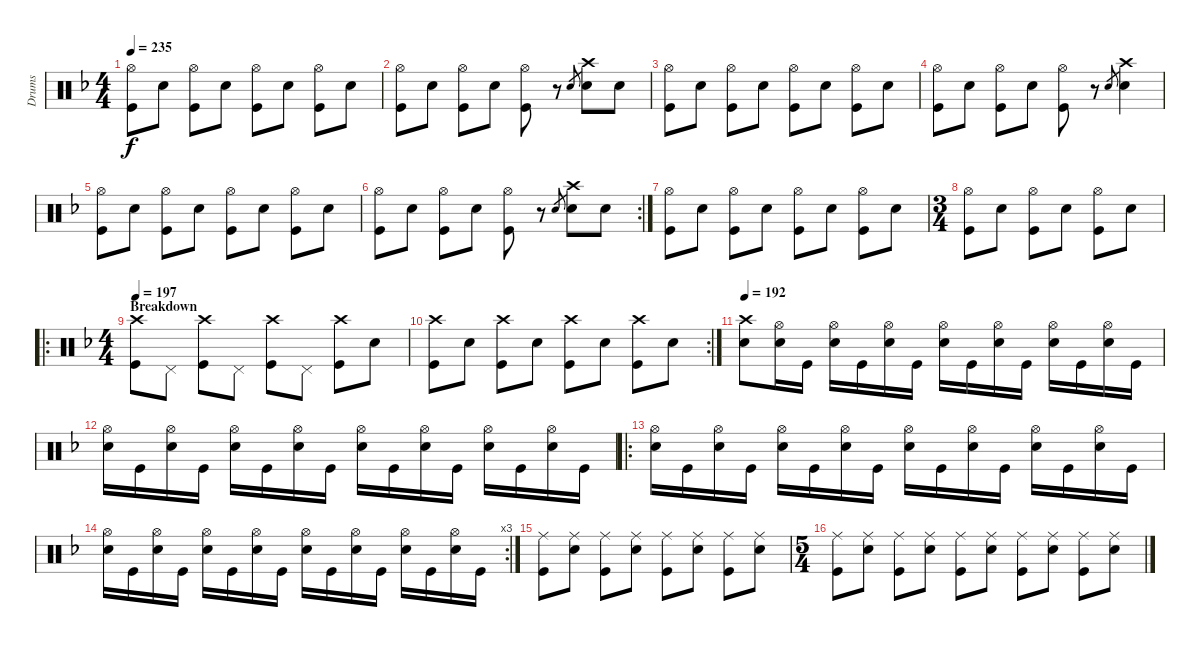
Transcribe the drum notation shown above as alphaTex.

\track ("Drums" "Drums") {instrument percussion}
\staff {score}
\articulation defaults
\ts (4 4)
\tempo 235
\clef neutral
\ks f
("Hi-Hat (open)" "Kick (hit)").8{dy f} "Electric Snare (hit)".8 ("Hi-Hat (open)" "Kick (hit)").8 "Electric Snare (hit)".8 ("Hi-Hat (open)" "Kick (hit)").8 "Electric Snare (hit)".8 ("Hi-Hat (open)" "Kick (hit)").8 "Electric Snare (hit)".8 |
("Hi-Hat (open)" "Kick (hit)").8 "Electric Snare (hit)".8 ("Hi-Hat (open)" "Kick (hit)").8 "Electric Snare (hit)".8 ("Hi-Hat (open)" "Kick (hit)").8 r.8 "Electric Snare (hit)".8{gr} ("Crash high (hit)" "Electric Snare (hit)").8 "Electric Snare (hit)".8 |
("Hi-Hat (open)" "Kick (hit)").8 "Electric Snare (hit)".8 ("Hi-Hat (open)" "Kick (hit)").8 "Electric Snare (hit)".8 ("Hi-Hat (open)" "Kick (hit)").8 "Electric Snare (hit)".8 ("Hi-Hat (open)" "Kick (hit)").8 "Electric Snare (hit)".8 |
("Hi-Hat (open)" "Kick (hit)").8 "Electric Snare (hit)".8 ("Hi-Hat (open)" "Kick (hit)").8 "Electric Snare (hit)".8 ("Hi-Hat (open)" "Kick (hit)").8 r.8 "Electric Snare (hit)".8{gr} ("Crash high (hit)" "Electric Snare (hit)").4 |
("Hi-Hat (open)" "Kick (hit)").8 "Electric Snare (hit)".8 ("Hi-Hat (open)" "Kick (hit)").8 "Electric Snare (hit)".8 ("Hi-Hat (open)" "Kick (hit)").8 "Electric Snare (hit)".8 ("Hi-Hat (open)" "Kick (hit)").8 "Electric Snare (hit)".8 |
\rc 2
("Hi-Hat (open)" "Kick (hit)").8 "Electric Snare (hit)".8 ("Hi-Hat (open)" "Kick (hit)").8 "Electric Snare (hit)".8 ("Hi-Hat (open)" "Kick (hit)").8 r.8 "Electric Snare (hit)".8{gr} ("Crash high (hit)" "Electric Snare (hit)").8 "Electric Snare (hit)".8 |
("Hi-Hat (open)" "Kick (hit)").8 "Electric Snare (hit)".8 ("Hi-Hat (open)" "Kick (hit)").8 "Electric Snare (hit)".8 ("Hi-Hat (open)" "Kick (hit)").8 "Electric Snare (hit)".8 ("Hi-Hat (open)" "Kick (hit)").8 "Electric Snare (hit)".8 |
\ts (3 4)
("Hi-Hat (open)" "Kick (hit)").8 "Electric Snare (hit)".8 ("Hi-Hat (open)" "Kick (hit)").8 "Electric Snare (hit)".8 ("Hi-Hat (open)" "Kick (hit)").8 "Electric Snare (hit)".8 |
\ro
\ts (4 4)
\section ("" "Breakdown")
\tempo 197
("Crash high (hit)" "Kick (hit)").8{volume 13} "Pedal Hi-Hat (hit)"{x}.8{volume 0} ("Crash high (hit)" "Kick (hit)").8{volume 13} "Pedal Hi-Hat (hit)"{x}.8{volume 0} ("Crash high (hit)" "Kick (hit)").8{volume 13} "Pedal Hi-Hat (hit)"{x}.8{volume 0} ("Crash high (hit)" "Kick (hit)").8{volume 13} "Snare (hit)"{x}.8{volume 0} |
\rc 2
("Crash high (hit)" "Kick (hit)").8{volume 13} "Snare (hit)"{x}.8{volume 0} ("Crash high (hit)" "Kick (hit)").8{volume 13} "Snare (hit)"{x}.8{volume 0} ("Crash high (hit)" "Kick (hit)").8{volume 13} "Snare (hit)"{x}.8{volume 0} ("Crash high (hit)" "Kick (hit)").8{volume 13} "Snare (hit)"{x}.8{volume 0} |
\tempo 192
("Crash high (hit)" "Electric Snare (hit)").8{volume 13} ("Hi-Hat (open)" "Electric Snare (hit)").16 "Kick (hit)".16 ("Hi-Hat (open)" "Electric Snare (hit)").16 "Kick (hit)".16 ("Hi-Hat (open)" "Electric Snare (hit)").16 "Kick (hit)".16 ("Hi-Hat (open)" "Electric Snare (hit)").16 "Kick (hit)".16 ("Hi-Hat (open)" "Electric Snare (hit)").16 "Kick (hit)".16 ("Hi-Hat (open)" "Electric Snare (hit)").16 "Kick (hit)".16 ("Hi-Hat (open)" "Electric Snare (hit)").16 "Kick (hit)".16 |
("Hi-Hat (open)" "Electric Snare (hit)").16 "Kick (hit)".16 ("Hi-Hat (open)" "Electric Snare (hit)").16 "Kick (hit)".16 ("Hi-Hat (open)" "Electric Snare (hit)").16 "Kick (hit)".16 ("Hi-Hat (open)" "Electric Snare (hit)").16 "Kick (hit)".16 ("Hi-Hat (open)" "Electric Snare (hit)").16 "Kick (hit)".16 ("Hi-Hat (open)" "Electric Snare (hit)").16 "Kick (hit)".16 ("Hi-Hat (open)" "Electric Snare (hit)").16 "Kick (hit)".16 ("Hi-Hat (open)" "Electric Snare (hit)").16 "Kick (hit)".16 |
\ro
("Hi-Hat (open)" "Electric Snare (hit)").16 "Kick (hit)".16 ("Hi-Hat (open)" "Electric Snare (hit)").16 "Kick (hit)".16 ("Hi-Hat (open)" "Electric Snare (hit)").16 "Kick (hit)".16 ("Hi-Hat (open)" "Electric Snare (hit)").16 "Kick (hit)".16 ("Hi-Hat (open)" "Electric Snare (hit)").16 "Kick (hit)".16 ("Hi-Hat (open)" "Electric Snare (hit)").16 "Kick (hit)".16 ("Hi-Hat (open)" "Electric Snare (hit)").16 "Kick (hit)".16 ("Hi-Hat (open)" "Electric Snare (hit)").16 "Kick (hit)".16 |
\rc 3
("Hi-Hat (open)" "Electric Snare (hit)").16 "Kick (hit)".16 ("Hi-Hat (open)" "Electric Snare (hit)").16 "Kick (hit)".16 ("Hi-Hat (open)" "Electric Snare (hit)").16 "Kick (hit)".16 ("Hi-Hat (open)" "Electric Snare (hit)").16 "Kick (hit)".16 ("Hi-Hat (open)" "Electric Snare (hit)").16 "Kick (hit)".16 ("Hi-Hat (open)" "Electric Snare (hit)").16 "Kick (hit)".16 ("Hi-Hat (open)" "Electric Snare (hit)").16 "Kick (hit)".16 ("Hi-Hat (open)" "Electric Snare (hit)").16 "Kick (hit)".16 |
("Ride (middle)" "Kick (hit)").8 ("Ride (middle)" "Electric Snare (hit)").8 ("Ride (middle)" "Kick (hit)").8 ("Ride (middle)" "Electric Snare (hit)").8 ("Ride (middle)" "Kick (hit)").8 ("Ride (middle)" "Electric Snare (hit)").8 ("Ride (middle)" "Kick (hit)").8 ("Ride (middle)" "Electric Snare (hit)").8 |
\ts (5 4)
("Ride (middle)" "Kick (hit)").8 ("Ride (middle)" "Electric Snare (hit)").8 ("Ride (middle)" "Kick (hit)").8 ("Ride (middle)" "Electric Snare (hit)").8 ("Ride (middle)" "Kick (hit)").8 ("Ride (middle)" "Electric Snare (hit)").8 ("Ride (middle)" "Kick (hit)").8 ("Ride (middle)" "Electric Snare (hit)").8 ("Ride (middle)" "Kick (hit)").8 ("Ride (middle)" "Electric Snare (hit)").8
